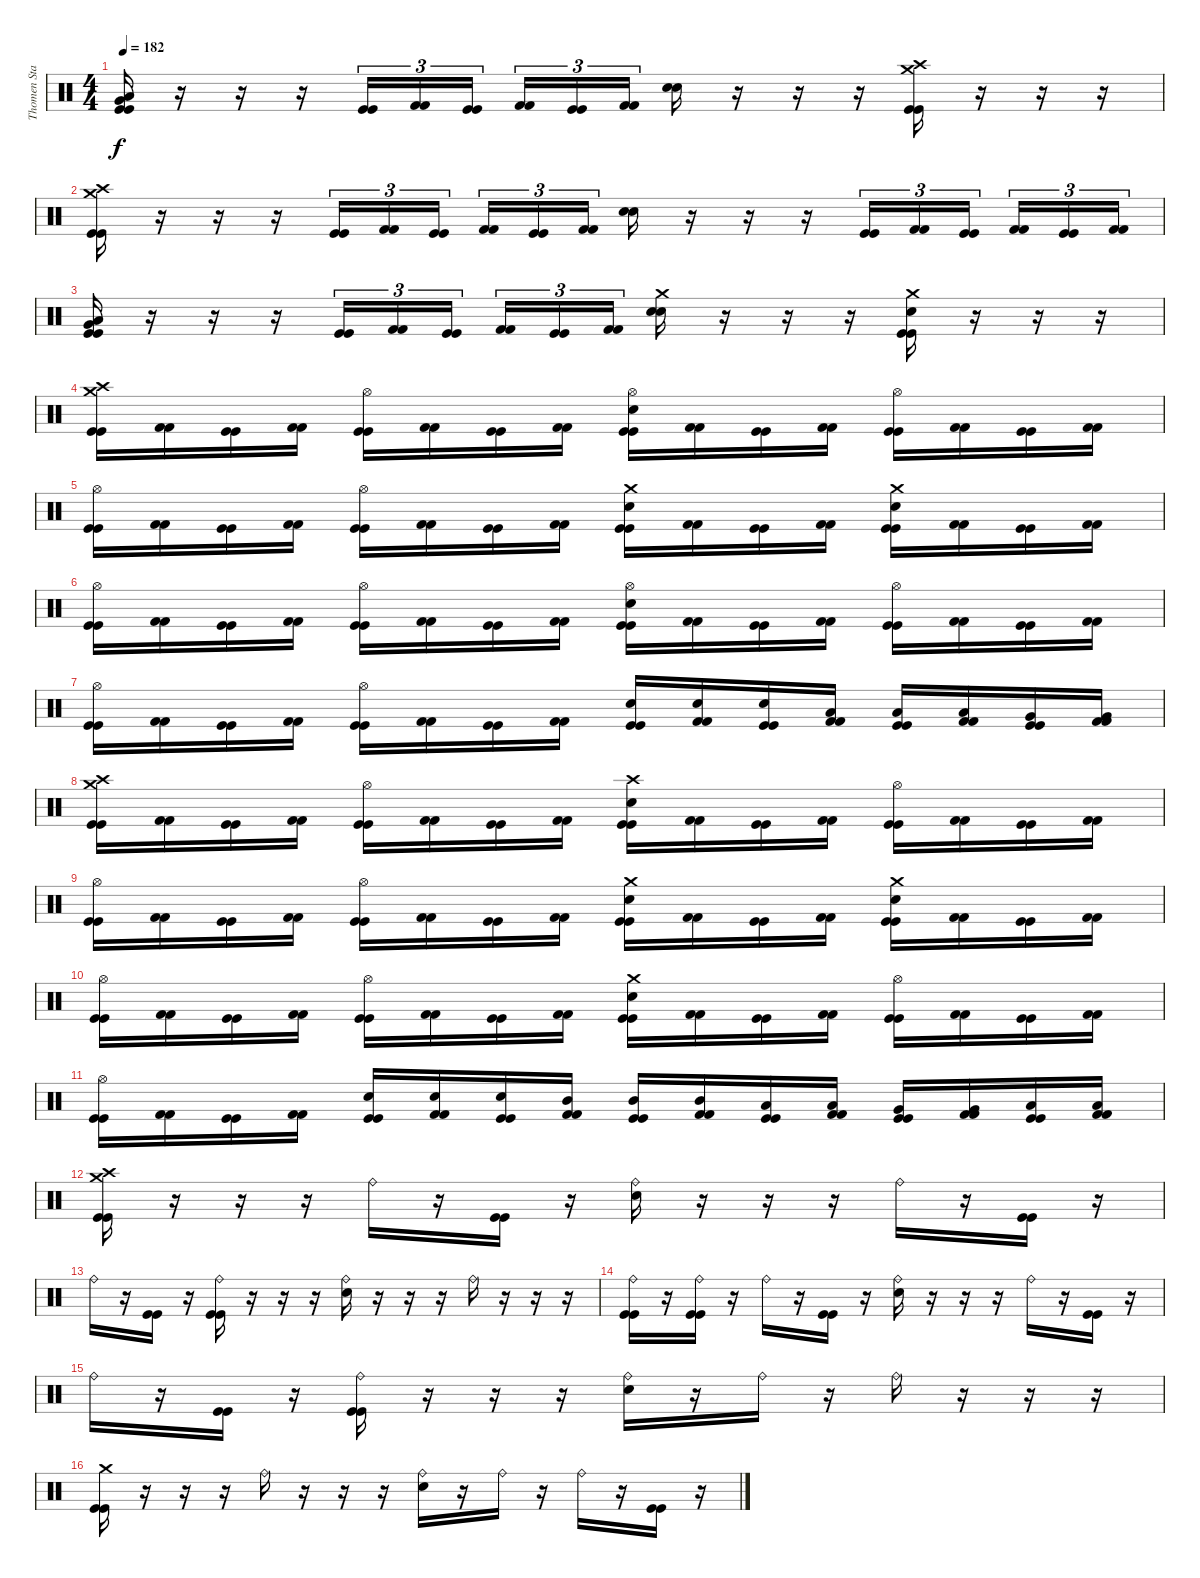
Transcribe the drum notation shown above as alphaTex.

\track ("Thomen Stauch" "Thomen Sta") {instrument percussion}
\staff {score}
\articulation defaults
\ts (4 4)
\tempo 182
\clef neutral
\ks c
("Very Low Tom (hit)" "Low Tom (hit)" "Kick (hit)" "Kick (hit)").16{dy f} r.16 r.16 r.16 ("Kick (hit)" "Kick (hit)").16{tu (3 2)} ("Kick (hit) 2" "Kick (hit) 2").16{tu (3 2)} ("Kick (hit)" "Kick (hit)").16{tu (3 2)} ("Kick (hit) 2" "Kick (hit) 2").16{tu (3 2)} ("Kick (hit)" "Kick (hit)").16{tu (3 2)} ("Kick (hit) 2" "Kick (hit) 2").16{tu (3 2)} ("Snare (hit) 2" "Snare (hit) 2").16 r.16 r.16 r.16 ("Crash medium (hit)" "Crash high (hit)" "Kick (hit)" "Kick (hit)").16 r.16 r.16 r.16 |
("Crash medium (hit)" "Crash high (hit)" "Kick (hit)" "Kick (hit)").16 r.16 r.16 r.16 ("Kick (hit)" "Kick (hit)").16{tu (3 2)} ("Kick (hit) 2" "Kick (hit) 2").16{tu (3 2)} ("Kick (hit)" "Kick (hit)").16{tu (3 2)} ("Kick (hit) 2" "Kick (hit) 2").16{tu (3 2)} ("Kick (hit)" "Kick (hit)").16{tu (3 2)} ("Kick (hit) 2" "Kick (hit) 2").16{tu (3 2)} ("Snare (hit) 2" "Snare (hit) 2").16 r.16 r.16 r.16 ("Kick (hit)" "Kick (hit)").16{tu (3 2)} ("Kick (hit) 2" "Kick (hit) 2").16{tu (3 2)} ("Kick (hit)" "Kick (hit)").16{tu (3 2)} ("Kick (hit) 2" "Kick (hit) 2").16{tu (3 2)} ("Kick (hit)" "Kick (hit)").16{tu (3 2)} ("Kick (hit) 2" "Kick (hit) 2").16{tu (3 2)} |
("Very Low Tom (hit)" "Low Tom (hit)" "Kick (hit)" "Kick (hit)").16 r.16 r.16 r.16 ("Kick (hit)" "Kick (hit)").16{tu (3 2)} ("Kick (hit) 2" "Kick (hit) 2").16{tu (3 2)} ("Kick (hit)" "Kick (hit)").16{tu (3 2)} ("Kick (hit) 2" "Kick (hit) 2").16{tu (3 2)} ("Kick (hit)" "Kick (hit)").16{tu (3 2)} ("Kick (hit) 2" "Kick (hit) 2").16{tu (3 2)} ("Crash medium (hit)" "Snare (hit) 2" "Snare (hit) 2").16 r.16 r.16 r.16 ("Crash medium (hit)" "Snare (hit) 2" "Kick (hit)" "Kick (hit)").16 r.16 r.16 r.16 |
("Crash medium (hit)" "Crash high (hit)" "Kick (hit)" "Kick (hit)").16 ("Kick (hit) 2" "Kick (hit) 2").16 ("Kick (hit)" "Kick (hit)").16 ("Kick (hit) 2" "Kick (hit) 2").16 ("Hi-Hat (open)" "Kick (hit)" "Kick (hit)").16 ("Kick (hit) 2" "Kick (hit) 2").16 ("Kick (hit)" "Kick (hit)").16 ("Kick (hit) 2" "Kick (hit) 2").16 ("Hi-Hat (open)" "Snare (hit) 2" "Kick (hit)" "Kick (hit)").16 ("Kick (hit) 2" "Kick (hit) 2").16 ("Kick (hit)" "Kick (hit)").16 ("Kick (hit) 2" "Kick (hit) 2").16 ("Hi-Hat (open)" "Kick (hit)" "Kick (hit)").16 ("Kick (hit) 2" "Kick (hit) 2").16 ("Kick (hit)" "Kick (hit)").16 ("Kick (hit) 2" "Kick (hit) 2").16 |
("Hi-Hat (open)" "Kick (hit)" "Kick (hit)").16 ("Kick (hit) 2" "Kick (hit) 2").16 ("Kick (hit)" "Kick (hit)").16 ("Kick (hit) 2" "Kick (hit) 2").16 ("Hi-Hat (open)" "Kick (hit)" "Kick (hit)").16 ("Kick (hit) 2" "Kick (hit) 2").16 ("Kick (hit)" "Kick (hit)").16 ("Kick (hit) 2" "Kick (hit) 2").16 ("Crash medium (hit)" "Snare (hit) 2" "Kick (hit)" "Kick (hit)").16 ("Kick (hit) 2" "Kick (hit) 2").16 ("Kick (hit)" "Kick (hit)").16 ("Kick (hit) 2" "Kick (hit) 2").16 ("Crash medium (hit)" "Snare (hit) 2" "Kick (hit)" "Kick (hit)").16 ("Kick (hit) 2" "Kick (hit) 2").16 ("Kick (hit)" "Kick (hit)").16 ("Kick (hit) 2" "Kick (hit) 2").16 |
("Hi-Hat (open)" "Kick (hit)" "Kick (hit)").16 ("Kick (hit) 2" "Kick (hit) 2").16 ("Kick (hit)" "Kick (hit)").16 ("Kick (hit) 2" "Kick (hit) 2").16 ("Hi-Hat (open)" "Kick (hit)" "Kick (hit)").16 ("Kick (hit) 2" "Kick (hit) 2").16 ("Kick (hit)" "Kick (hit)").16 ("Kick (hit) 2" "Kick (hit) 2").16 ("Hi-Hat (open)" "Snare (hit) 2" "Kick (hit)" "Kick (hit)").16 ("Kick (hit) 2" "Kick (hit) 2").16 ("Kick (hit)" "Kick (hit)").16 ("Kick (hit) 2" "Kick (hit) 2").16 ("Hi-Hat (open)" "Kick (hit)" "Kick (hit)").16 ("Kick (hit) 2" "Kick (hit) 2").16 ("Kick (hit)" "Kick (hit)").16 ("Kick (hit) 2" "Kick (hit) 2").16 |
("Hi-Hat (open)" "Kick (hit)" "Kick (hit)").16 ("Kick (hit) 2" "Kick (hit) 2").16 ("Kick (hit)" "Kick (hit)").16 ("Kick (hit) 2" "Kick (hit) 2").16 ("Hi-Hat (open)" "Kick (hit)" "Kick (hit)").16 ("Kick (hit) 2" "Kick (hit) 2").16 ("Kick (hit)" "Kick (hit)").16 ("Kick (hit) 2" "Kick (hit) 2").16 ("Snare (hit) 2" "Kick (hit)" "Kick (hit)").16 ("Snare (hit) 2" "Kick (hit) 2" "Kick (hit) 2").16 ("Snare (hit) 2" "Kick (hit)" "Kick (hit)").16 ("Low Tom (hit)" "Kick (hit) 2" "Kick (hit) 2").16 ("Low Tom (hit)" "Kick (hit)" "Kick (hit)").16 ("Low Tom (hit)" "Kick (hit) 2" "Kick (hit) 2").16 ("Very Low Tom (hit)" "Kick (hit)" "Kick (hit)").16 ("Very Low Tom (hit)" "Kick (hit) 2" "Kick (hit) 2").16 |
("Crash medium (hit)" "Crash high (hit)" "Kick (hit)" "Kick (hit)").16 ("Kick (hit) 2" "Kick (hit) 2").16 ("Kick (hit)" "Kick (hit)").16 ("Kick (hit) 2" "Kick (hit) 2").16 ("Hi-Hat (open)" "Kick (hit)" "Kick (hit)").16 ("Kick (hit) 2" "Kick (hit) 2").16 ("Kick (hit)" "Kick (hit)").16 ("Kick (hit) 2" "Kick (hit) 2").16 ("Crash high (hit)" "Snare (hit) 2" "Kick (hit)" "Kick (hit)").16 ("Kick (hit) 2" "Kick (hit) 2").16 ("Kick (hit)" "Kick (hit)").16 ("Kick (hit) 2" "Kick (hit) 2").16 ("Hi-Hat (open)" "Kick (hit)" "Kick (hit)").16 ("Kick (hit) 2" "Kick (hit) 2").16 ("Kick (hit)" "Kick (hit)").16 ("Kick (hit) 2" "Kick (hit) 2").16 |
("Hi-Hat (open)" "Kick (hit)" "Kick (hit)").16 ("Kick (hit) 2" "Kick (hit) 2").16 ("Kick (hit)" "Kick (hit)").16 ("Kick (hit) 2" "Kick (hit) 2").16 ("Hi-Hat (open)" "Kick (hit)" "Kick (hit)").16 ("Kick (hit) 2" "Kick (hit) 2").16 ("Kick (hit)" "Kick (hit)").16 ("Kick (hit) 2" "Kick (hit) 2").16 ("Crash medium (hit)" "Snare (hit) 2" "Kick (hit)" "Kick (hit)").16 ("Kick (hit) 2" "Kick (hit) 2").16 ("Kick (hit)" "Kick (hit)").16 ("Kick (hit) 2" "Kick (hit) 2").16 ("Crash medium (hit)" "Snare (hit) 2" "Kick (hit)" "Kick (hit)").16 ("Kick (hit) 2" "Kick (hit) 2").16 ("Kick (hit)" "Kick (hit)").16 ("Kick (hit) 2" "Kick (hit) 2").16 |
("Hi-Hat (open)" "Kick (hit)" "Kick (hit)").16 ("Kick (hit) 2" "Kick (hit) 2").16 ("Kick (hit)" "Kick (hit)").16 ("Kick (hit) 2" "Kick (hit) 2").16 ("Hi-Hat (open)" "Kick (hit)" "Kick (hit)").16 ("Kick (hit) 2" "Kick (hit) 2").16 ("Kick (hit)" "Kick (hit)").16 ("Kick (hit) 2" "Kick (hit) 2").16 ("Crash medium (hit)" "Snare (hit) 2" "Kick (hit)" "Kick (hit)").16 ("Kick (hit) 2" "Kick (hit) 2").16 ("Kick (hit)" "Kick (hit)").16 ("Kick (hit) 2" "Kick (hit) 2").16 ("Hi-Hat (open)" "Kick (hit)" "Kick (hit)").16 ("Kick (hit) 2" "Kick (hit) 2").16 ("Kick (hit)" "Kick (hit)").16 ("Kick (hit) 2" "Kick (hit) 2").16 |
("Hi-Hat (open)" "Kick (hit)" "Kick (hit)").16 ("Kick (hit) 2" "Kick (hit) 2").16 ("Kick (hit)" "Kick (hit)").16 ("Kick (hit) 2" "Kick (hit) 2").16 ("Snare (hit) 2" "Kick (hit)" "Kick (hit)").16 ("Snare (hit) 2" "Kick (hit) 2" "Kick (hit) 2").16 ("Snare (hit) 2" "Kick (hit)" "Kick (hit)").16 ("Mid Tom (hit)" "Kick (hit) 2" "Kick (hit) 2").16 ("Mid Tom (hit)" "Kick (hit)" "Kick (hit)").16 ("Mid Tom (hit)" "Kick (hit) 2" "Kick (hit) 2").16 ("Low Tom (hit)" "Kick (hit)" "Kick (hit)").16 ("Low Tom (hit)" "Kick (hit) 2" "Kick (hit) 2").16 ("Very Low Tom (hit)" "Kick (hit)" "Kick (hit)").16 ("Very Low Tom (hit)" "Kick (hit) 2" "Kick (hit) 2").16 ("Low Floor Tom (hit)" "Kick (hit)" "Kick (hit)").16 ("Low Floor Tom (hit)" "Kick (hit) 2" "Kick (hit) 2").16 |
("Crash medium (hit)" "Crash high (hit)" "Kick (hit)" "Kick (hit)").16 r.16 r.16 r.16 "Ride (bell)".16 r.16 ("Kick (hit)" "Kick (hit)").16 r.16 ("Ride (bell)" "Snare (hit) 2").16 r.16 r.16 r.16 "Ride (bell)".16 r.16 ("Kick (hit)" "Kick (hit)").16 r.16 |
"Ride (bell)".16 r.16 ("Kick (hit)" "Kick (hit)").16 r.16 ("Ride (bell)" "Kick (hit)" "Kick (hit)").16 r.16 r.16 r.16 ("Ride (bell)" "Snare (hit) 2").16 r.16 r.16 r.16 "Ride (bell)".16 r.16 r.16 r.16 |
("Ride (bell)" "Kick (hit)" "Kick (hit)").16 r.16 ("Ride (bell)" "Kick (hit)" "Kick (hit)").16 r.16 "Ride (bell)".16 r.16 ("Kick (hit)" "Kick (hit)").16 r.16 ("Ride (bell)" "Snare (hit) 2").16 r.16 r.16 r.16 "Ride (bell)".16 r.16 ("Kick (hit)" "Kick (hit)").16 r.16 |
"Ride (bell)".16 r.16 ("Kick (hit)" "Kick (hit)").16 r.16 ("Ride (bell)" "Kick (hit)" "Kick (hit)").16 r.16 r.16 r.16 ("Ride (bell)" "Snare (hit) 2").16 r.16 "Ride (bell)".16 r.16 "Ride (bell)".16 r.16 r.16 r.16 |
("Crash medium (hit)" "Kick (hit)" "Kick (hit)").16 r.16 r.16 r.16 "Ride (bell)".16 r.16 r.16 r.16 ("Ride (bell)" "Snare (hit) 2").16 r.16 "Ride (bell)".16 r.16 "Ride (bell)".16 r.16 ("Kick (hit)" "Kick (hit)").16 r.16
